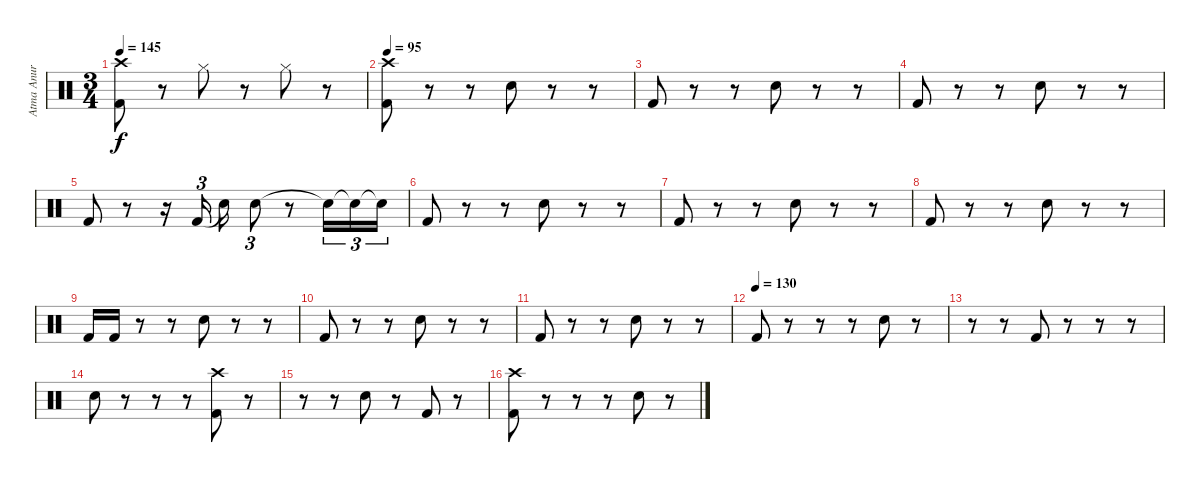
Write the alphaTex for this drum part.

\track ("Atma Anur" "Atma Anur") {instrument percussion}
\staff {score}
\articulation defaults
\ts (3 4)
\tempo 145
\clef neutral
\ks c
("Crash high (hit)" "Kick (hit) 2").8{dy f} r.8 "Hi-Hat (closed)".8 r.8 "Hi-Hat (closed)".8 r.8 |
\tempo 95
("Crash high (hit)" "Kick (hit) 2").8 r.8 r.8 "Snare (hit) 2".8 r.8 r.8 |
"Kick (hit) 2".8 r.8 r.8 "Snare (hit) 2".8 r.8 r.8 |
"Kick (hit) 2".8 r.8 r.8 "Snare (hit) 2".8 r.8 r.8 |
"Kick (hit) 2".8 r.8 r.16 "Kick (hit) 2".16{tu (3 2) beam splitsecondary} "Snare (hit) 2"{t}.16 "Snare (hit) 2".8{tu (3 2)} r.8 "Snare (hit)"{t}.16{tu (3 2)} "Snare (hit)"{t}.16{tu (3 2)} "Snare (hit)"{t}.16{tu (3 2)} |
"Kick (hit) 2".8 r.8 r.8 "Snare (hit) 2".8 r.8 r.8 |
"Kick (hit) 2".8 r.8 r.8 "Snare (hit) 2".8 r.8 r.8 |
"Kick (hit) 2".8 r.8 r.8 "Snare (hit) 2".8 r.8 r.8 |
"Kick (hit) 2".16 "Kick (hit) 2".16 r.8 r.8 "Snare (hit) 2".8 r.8 r.8 |
"Kick (hit) 2".8 r.8 r.8 "Snare (hit) 2".8 r.8 r.8 |
"Kick (hit) 2".8 r.8 r.8 "Snare (hit) 2".8 r.8 r.8 |
\tempo (130)
"Kick (hit) 2".8 r.8 r.8 r.8 "Snare (hit) 2".8 r.8 |
r.8 r.8 "Kick (hit) 2".8 r.8 r.8 r.8 |
"Snare (hit) 2".8 r.8 r.8 r.8 ("Crash high (hit)" "Kick (hit) 2").8 r.8 |
r.8 r.8 "Snare (hit) 2".8 r.8 "Kick (hit) 2".8 r.8 |
("Crash high (hit)" "Kick (hit) 2").8 r.8 r.8 r.8 "Snare (hit) 2".8 r.8
